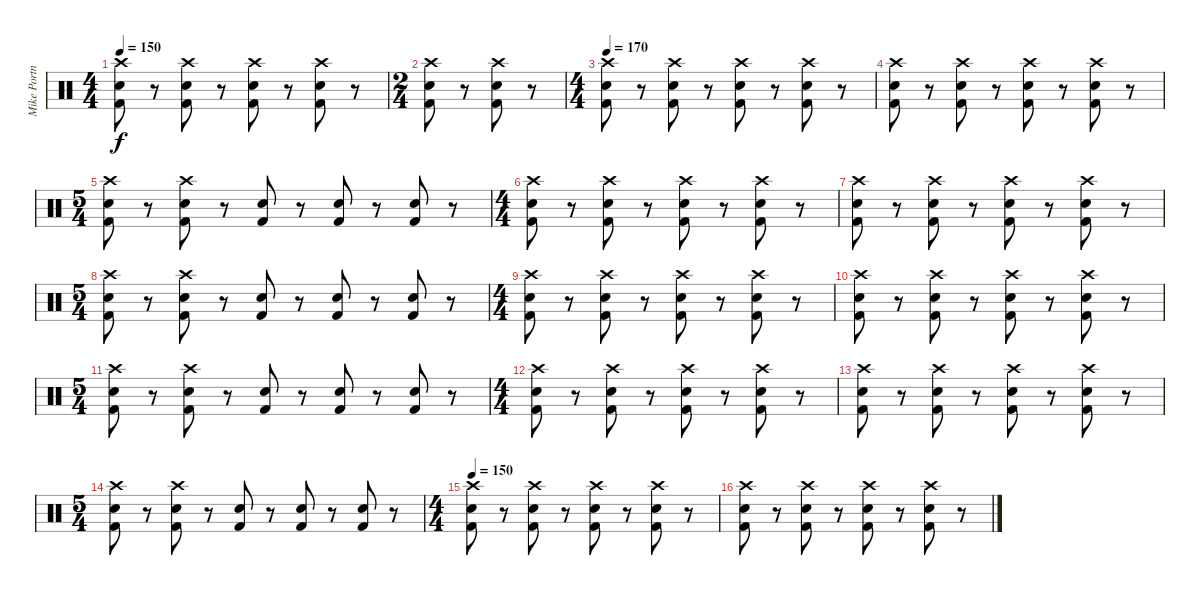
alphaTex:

\track ("Mike Portnoy" "Mike Portn") {instrument percussion}
\staff {score}
\articulation defaults
\ts (4 4)
\tempo 150
\clef neutral
\ks c
("Crash high (hit)" "Electric Snare (hit)" "Kick (hit) 2").8{dy f} r.8 ("Crash high (hit)" "Electric Snare (hit)" "Kick (hit) 2").8 r.8 ("Crash high (hit)" "Electric Snare (hit)" "Kick (hit) 2").8 r.8 ("Crash high (hit)" "Electric Snare (hit)" "Kick (hit) 2").8 r.8 |
\ts (2 4)
("Crash high (hit)" "Electric Snare (hit)" "Kick (hit) 2").8 r.8 ("Crash high (hit)" "Electric Snare (hit)" "Kick (hit) 2").8 r.8 |
\ts (4 4)
\tempo 170
("Crash high (hit)" "Electric Snare (hit)" "Kick (hit) 2").8 r.8 ("Crash high (hit)" "Electric Snare (hit)" "Kick (hit) 2").8 r.8 ("Crash high (hit)" "Electric Snare (hit)" "Kick (hit) 2").8 r.8 ("Crash high (hit)" "Electric Snare (hit)" "Kick (hit) 2").8 r.8 |
("Crash high (hit)" "Electric Snare (hit)" "Kick (hit) 2").8 r.8 ("Crash high (hit)" "Electric Snare (hit)" "Kick (hit) 2").8 r.8 ("Crash high (hit)" "Electric Snare (hit)" "Kick (hit) 2").8 r.8 ("Crash high (hit)" "Electric Snare (hit)" "Kick (hit) 2").8 r.8 |
\ts (5 4)
("Crash high (hit)" "Electric Snare (hit)" "Kick (hit) 2").8 r.8 ("Crash high (hit)" "Electric Snare (hit)" "Kick (hit) 2").8 r.8 ("Electric Snare (hit)" "Kick (hit) 2").8 r.8 ("Electric Snare (hit)" "Kick (hit) 2").8 r.8 ("Electric Snare (hit)" "Kick (hit) 2").8 r.8 |
\ts (4 4)
("Crash high (hit)" "Electric Snare (hit)" "Kick (hit) 2").8 r.8 ("Crash high (hit)" "Electric Snare (hit)" "Kick (hit) 2").8 r.8 ("Crash high (hit)" "Electric Snare (hit)" "Kick (hit) 2").8 r.8 ("Crash high (hit)" "Electric Snare (hit)" "Kick (hit) 2").8 r.8 |
("Crash high (hit)" "Electric Snare (hit)" "Kick (hit) 2").8 r.8 ("Crash high (hit)" "Electric Snare (hit)" "Kick (hit) 2").8 r.8 ("Crash high (hit)" "Electric Snare (hit)" "Kick (hit) 2").8 r.8 ("Crash high (hit)" "Electric Snare (hit)" "Kick (hit) 2").8 r.8 |
\ts (5 4)
("Crash high (hit)" "Electric Snare (hit)" "Kick (hit) 2").8 r.8 ("Crash high (hit)" "Electric Snare (hit)" "Kick (hit) 2").8 r.8 ("Electric Snare (hit)" "Kick (hit) 2").8 r.8 ("Electric Snare (hit)" "Kick (hit) 2").8 r.8 ("Electric Snare (hit)" "Kick (hit) 2").8 r.8 |
\ts (4 4)
("Crash high (hit)" "Electric Snare (hit)" "Kick (hit) 2").8 r.8 ("Crash high (hit)" "Electric Snare (hit)" "Kick (hit) 2").8 r.8 ("Crash high (hit)" "Electric Snare (hit)" "Kick (hit) 2").8 r.8 ("Crash high (hit)" "Electric Snare (hit)" "Kick (hit) 2").8 r.8 |
("Crash high (hit)" "Electric Snare (hit)" "Kick (hit) 2").8 r.8 ("Crash high (hit)" "Electric Snare (hit)" "Kick (hit) 2").8 r.8 ("Crash high (hit)" "Electric Snare (hit)" "Kick (hit) 2").8 r.8 ("Crash high (hit)" "Electric Snare (hit)" "Kick (hit) 2").8 r.8 |
\ts (5 4)
("Crash high (hit)" "Electric Snare (hit)" "Kick (hit) 2").8 r.8 ("Crash high (hit)" "Electric Snare (hit)" "Kick (hit) 2").8 r.8 ("Electric Snare (hit)" "Kick (hit) 2").8 r.8 ("Electric Snare (hit)" "Kick (hit) 2").8 r.8 ("Electric Snare (hit)" "Kick (hit) 2").8 r.8 |
\ts (4 4)
("Crash high (hit)" "Electric Snare (hit)" "Kick (hit) 2").8 r.8 ("Crash high (hit)" "Electric Snare (hit)" "Kick (hit) 2").8 r.8 ("Crash high (hit)" "Electric Snare (hit)" "Kick (hit) 2").8 r.8 ("Crash high (hit)" "Electric Snare (hit)" "Kick (hit) 2").8 r.8 |
("Crash high (hit)" "Electric Snare (hit)" "Kick (hit) 2").8 r.8 ("Crash high (hit)" "Electric Snare (hit)" "Kick (hit) 2").8 r.8 ("Crash high (hit)" "Electric Snare (hit)" "Kick (hit) 2").8 r.8 ("Crash high (hit)" "Electric Snare (hit)" "Kick (hit) 2").8 r.8 |
\ts (5 4)
("Crash high (hit)" "Electric Snare (hit)" "Kick (hit) 2").8 r.8 ("Crash high (hit)" "Electric Snare (hit)" "Kick (hit) 2").8 r.8 ("Electric Snare (hit)" "Kick (hit) 2").8 r.8 ("Electric Snare (hit)" "Kick (hit) 2").8 r.8 ("Electric Snare (hit)" "Kick (hit) 2").8 r.8 |
\ts (4 4)
\tempo 150
("Crash high (hit)" "Electric Snare (hit)" "Kick (hit) 2").8 r.8 ("Crash high (hit)" "Electric Snare (hit)" "Kick (hit) 2").8 r.8 ("Crash high (hit)" "Electric Snare (hit)" "Kick (hit) 2").8 r.8 ("Crash high (hit)" "Electric Snare (hit)" "Kick (hit) 2").8 r.8 |
("Crash high (hit)" "Electric Snare (hit)" "Kick (hit) 2").8 r.8 ("Crash high (hit)" "Electric Snare (hit)" "Kick (hit) 2").8 r.8 ("Crash high (hit)" "Electric Snare (hit)" "Kick (hit) 2").8 r.8 ("Crash high (hit)" "Electric Snare (hit)" "Kick (hit) 2").8 r.8
